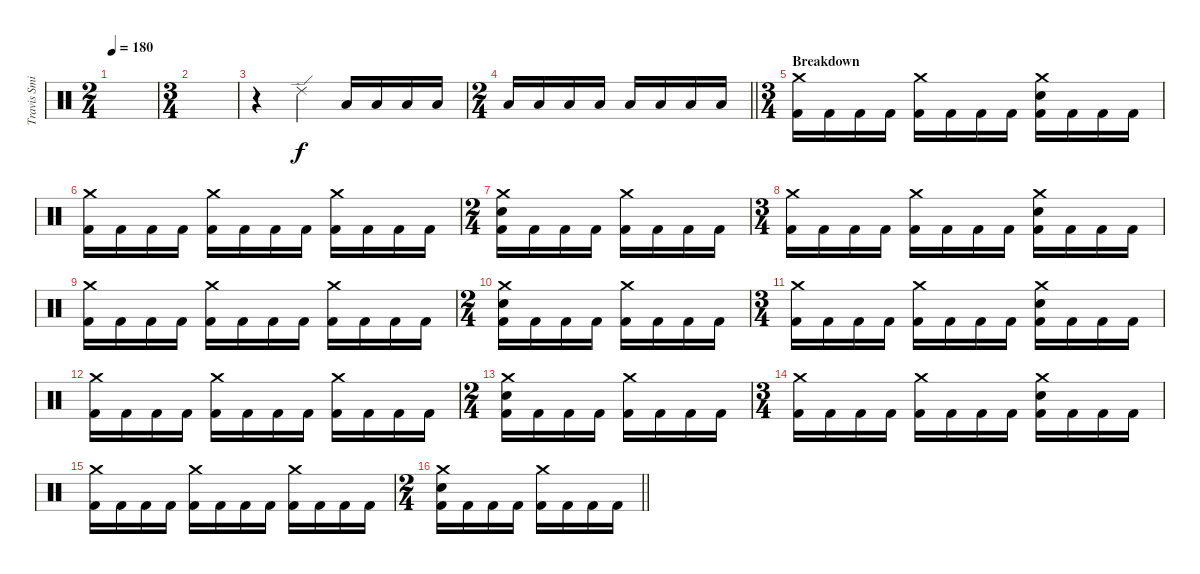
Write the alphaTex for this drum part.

\track ("Travis Smith" "Travis Smi") {instrument percussion}
\staff {score}
\articulation defaults
\ts (2 4)
\tempo 180
\clef neutral
\ks c
|
\ts (3 4)
|
r.4 "Ride (edge) 2".4 "Low Floor Tom (hit)".16 "Low Floor Tom (hit)".16 "Low Floor Tom (hit)".16 "Low Floor Tom (hit)".16 |
\ts (2 4)
\barLineRight lightlight "Low Floor Tom (hit)".16 "Low Floor Tom (hit)".16 "Low Floor Tom (hit)".16 "Low Floor Tom (hit)".16 "Low Floor Tom (hit)".16 "Low Floor Tom (hit)".16 "Low Floor Tom (hit)".16 "Low Floor Tom (hit)".16
|
\ts (3 4)
\section ("" "Breakdown")
("Crash medium (hit)" "Kick (hit) 2").16 "Kick (hit) 2".16 "Kick (hit) 2".16 "Kick (hit) 2".16 ("Crash medium (hit)" "Kick (hit) 2").16 "Kick (hit) 2".16 "Kick (hit) 2".16 "Kick (hit) 2".16 ("Crash medium (hit)" "Electric Snare (hit)" "Kick (hit) 2").16 "Kick (hit) 2".16 "Kick (hit) 2".16 "Kick (hit) 2".16 |
("Crash medium (hit)" "Kick (hit) 2").16 "Kick (hit) 2".16 "Kick (hit) 2".16 "Kick (hit) 2".16 ("Crash medium (hit)" "Kick (hit) 2").16 "Kick (hit) 2".16 "Kick (hit) 2".16 "Kick (hit) 2".16 ("Crash medium (hit)" "Kick (hit) 2").16 "Kick (hit) 2".16 "Kick (hit) 2".16 "Kick (hit) 2".16 |
\ts (2 4)
("Crash medium (hit)" "Electric Snare (hit)" "Kick (hit) 2").16 "Kick (hit) 2".16 "Kick (hit) 2".16 "Kick (hit) 2".16 ("Crash medium (hit)" "Kick (hit) 2").16 "Kick (hit) 2".16 "Kick (hit) 2".16 "Kick (hit) 2".16 |
\ts (3 4)
("Crash medium (hit)" "Kick (hit) 2").16 "Kick (hit) 2".16 "Kick (hit) 2".16 "Kick (hit) 2".16 ("Crash medium (hit)" "Kick (hit) 2").16 "Kick (hit) 2".16 "Kick (hit) 2".16 "Kick (hit) 2".16 ("Crash medium (hit)" "Electric Snare (hit)" "Kick (hit) 2").16 "Kick (hit) 2".16 "Kick (hit) 2".16 "Kick (hit) 2".16 |
("Crash medium (hit)" "Kick (hit) 2").16 "Kick (hit) 2".16 "Kick (hit) 2".16 "Kick (hit) 2".16 ("Crash medium (hit)" "Kick (hit) 2").16 "Kick (hit) 2".16 "Kick (hit) 2".16 "Kick (hit) 2".16 ("Crash medium (hit)" "Kick (hit) 2").16 "Kick (hit) 2".16 "Kick (hit) 2".16 "Kick (hit) 2".16 |
\ts (2 4)
("Crash medium (hit)" "Electric Snare (hit)" "Kick (hit) 2").16 "Kick (hit) 2".16 "Kick (hit) 2".16 "Kick (hit) 2".16 ("Crash medium (hit)" "Kick (hit) 2").16 "Kick (hit) 2".16 "Kick (hit) 2".16 "Kick (hit) 2".16 |
\ts (3 4)
("Crash medium (hit)" "Kick (hit) 2").16 "Kick (hit) 2".16 "Kick (hit) 2".16 "Kick (hit) 2".16 ("Crash medium (hit)" "Kick (hit) 2").16 "Kick (hit) 2".16 "Kick (hit) 2".16 "Kick (hit) 2".16 ("Crash medium (hit)" "Electric Snare (hit)" "Kick (hit) 2").16 "Kick (hit) 2".16 "Kick (hit) 2".16 "Kick (hit) 2".16 |
("Crash medium (hit)" "Kick (hit) 2").16 "Kick (hit) 2".16 "Kick (hit) 2".16 "Kick (hit) 2".16 ("Crash medium (hit)" "Kick (hit) 2").16 "Kick (hit) 2".16 "Kick (hit) 2".16 "Kick (hit) 2".16 ("Crash medium (hit)" "Kick (hit) 2").16 "Kick (hit) 2".16 "Kick (hit) 2".16 "Kick (hit) 2".16 |
\ts (2 4)
("Crash medium (hit)" "Electric Snare (hit)" "Kick (hit) 2").16 "Kick (hit) 2".16 "Kick (hit) 2".16 "Kick (hit) 2".16 ("Crash medium (hit)" "Kick (hit) 2").16 "Kick (hit) 2".16 "Kick (hit) 2".16 "Kick (hit) 2".16 |
\ts (3 4)
("Crash medium (hit)" "Kick (hit) 2").16 "Kick (hit) 2".16 "Kick (hit) 2".16 "Kick (hit) 2".16 ("Crash medium (hit)" "Kick (hit) 2").16 "Kick (hit) 2".16 "Kick (hit) 2".16 "Kick (hit) 2".16 ("Crash medium (hit)" "Electric Snare (hit)" "Kick (hit) 2").16 "Kick (hit) 2".16 "Kick (hit) 2".16 "Kick (hit) 2".16 |
("Crash medium (hit)" "Kick (hit) 2").16 "Kick (hit) 2".16 "Kick (hit) 2".16 "Kick (hit) 2".16 ("Crash medium (hit)" "Kick (hit) 2").16 "Kick (hit) 2".16 "Kick (hit) 2".16 "Kick (hit) 2".16 ("Crash medium (hit)" "Kick (hit) 2").16 "Kick (hit) 2".16 "Kick (hit) 2".16 "Kick (hit) 2".16 |
\ts (2 4)
\barLineRight lightlight
("Crash medium (hit)" "Electric Snare (hit)" "Kick (hit) 2").16 "Kick (hit) 2".16 "Kick (hit) 2".16 "Kick (hit) 2".16 ("Crash medium (hit)" "Kick (hit) 2").16 "Kick (hit) 2".16 "Kick (hit) 2".16 "Kick (hit) 2".16
